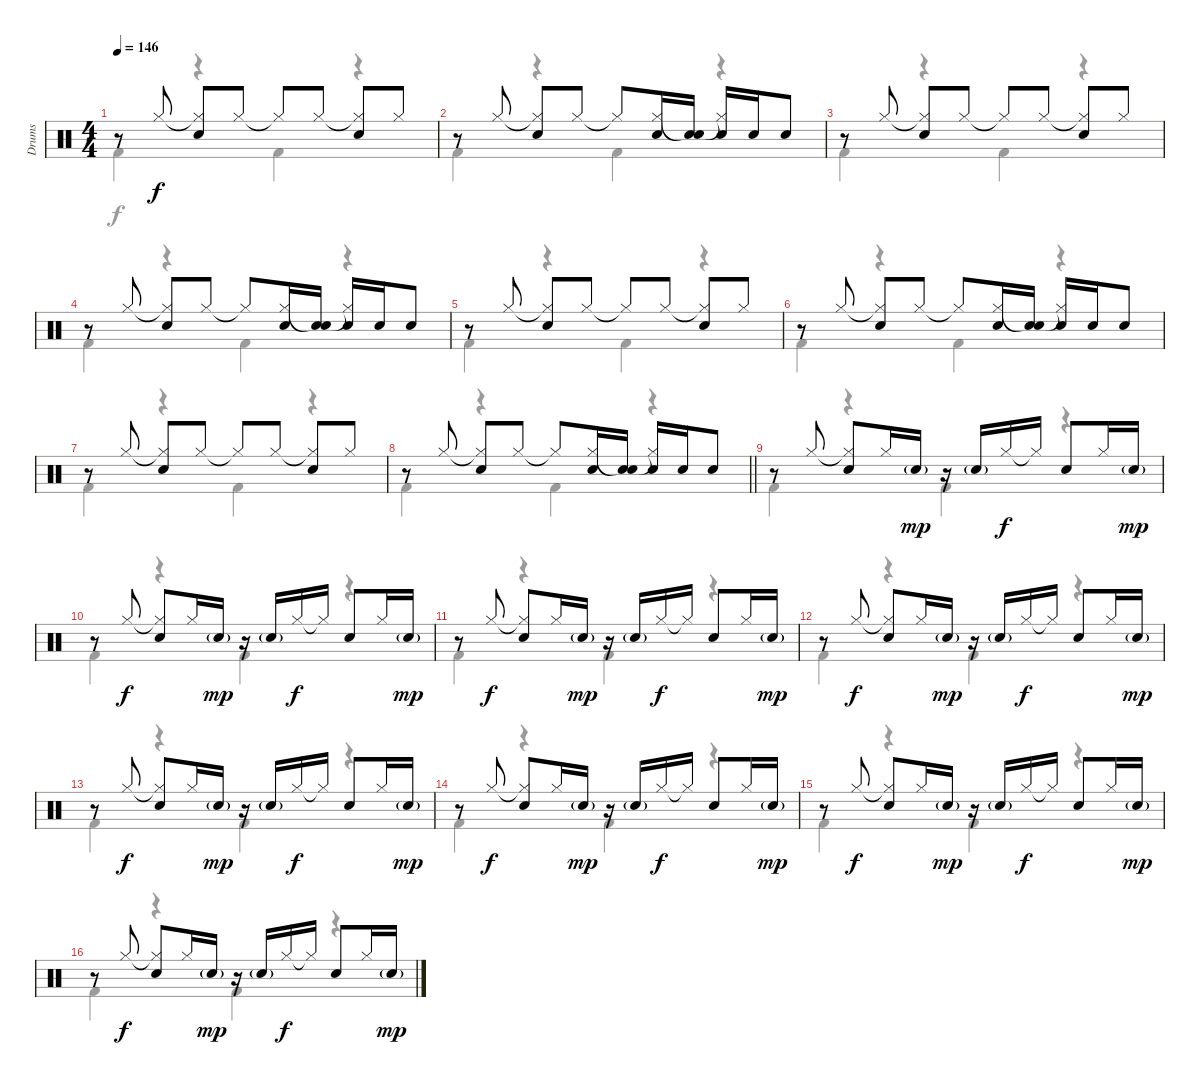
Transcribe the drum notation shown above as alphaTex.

\track ("Drums" "Drums") {instrument percussion}
\staff {score}
\articulation defaults
\voice
\ts (4 4)
\tempo 146
\clef neutral
\ks c
r.8{dy f} "Hi-Hat (closed)".8 ("Hi-Hat (closed)"{t} "Snare (hit) 2").8 "Hi-Hat (closed)".8 "Hi-Hat (closed)"{t}.8 "Hi-Hat (closed)".8 ("Hi-Hat (closed)"{t} "Snare (hit) 2").8 "Hi-Hat (closed)".8 |
r.8 "Hi-Hat (closed)".8 ("Hi-Hat (closed)"{t} "Snare (hit) 2").8 "Hi-Hat (closed)".8 "Hi-Hat (closed)"{t}.8 ("Hi-Hat (closed)" "Snare (hit) 2").16 ("Snare (hit)"{t} "Snare (hit) 2").16 ("Hi-Hat (closed)"{t} "Snare (hit) 2").16 "Snare (hit) 2".16 "Snare (hit) 2".8 |
r.8 "Hi-Hat (closed)".8 ("Hi-Hat (closed)"{t} "Snare (hit) 2").8 "Hi-Hat (closed)".8 "Hi-Hat (closed)"{t}.8 "Hi-Hat (closed)".8 ("Hi-Hat (closed)"{t} "Snare (hit) 2").8 "Hi-Hat (closed)".8 |
r.8 "Hi-Hat (closed)".8 ("Hi-Hat (closed)"{t} "Snare (hit) 2").8 "Hi-Hat (closed)".8 "Hi-Hat (closed)"{t}.8 ("Hi-Hat (closed)" "Snare (hit) 2").16 ("Snare (hit)"{t} "Snare (hit) 2").16 ("Hi-Hat (closed)"{t} "Snare (hit) 2").16 "Snare (hit) 2".16 "Snare (hit) 2".8 |
r.8 "Hi-Hat (closed)".8 ("Hi-Hat (closed)"{t} "Snare (hit) 2").8 "Hi-Hat (closed)".8 "Hi-Hat (closed)"{t}.8 "Hi-Hat (closed)".8 ("Hi-Hat (closed)"{t} "Snare (hit) 2").8 "Hi-Hat (closed)".8 |
r.8 "Hi-Hat (closed)".8 ("Hi-Hat (closed)"{t} "Snare (hit) 2").8 "Hi-Hat (closed)".8 "Hi-Hat (closed)"{t}.8 ("Hi-Hat (closed)" "Snare (hit) 2").16 ("Snare (hit)"{t} "Snare (hit) 2").16 ("Hi-Hat (closed)"{t} "Snare (hit) 2").16 "Snare (hit) 2".16 "Snare (hit) 2".8 |
r.8 "Hi-Hat (closed)".8 ("Hi-Hat (closed)"{t} "Snare (hit) 2").8 "Hi-Hat (closed)".8 "Hi-Hat (closed)"{t}.8 "Hi-Hat (closed)".8 ("Hi-Hat (closed)"{t} "Snare (hit) 2").8 "Hi-Hat (closed)".8 |
\barLineRight lightlight
r.8 "Hi-Hat (closed)".8 ("Hi-Hat (closed)"{t} "Snare (hit) 2").8 "Hi-Hat (closed)".8 "Hi-Hat (closed)"{t}.8 ("Hi-Hat (closed)" "Snare (hit) 2").16 ("Snare (hit)"{t} "Snare (hit) 2").16 ("Hi-Hat (closed)"{t} "Snare (hit) 2").16 "Snare (hit) 2".16 "Snare (hit) 2".8 |
r.8 "Hi-Hat (closed)".8 ("Hi-Hat (closed)"{t} "Snare (hit) 2").8 "Hi-Hat (closed)".16 "Snare (hit) 2"{g}.16{dy mp} r.16 "Snare (hit) 2"{g}.16 "Hi-Hat (closed)".16{dy f} "Hi-Hat (closed)"{t}.16 "Snare (hit) 2".8 "Hi-Hat (closed)".16 "Snare (hit) 2"{g}.16{dy mp} |
r.8 "Hi-Hat (closed)".8{dy f} ("Hi-Hat (closed)"{t} "Snare (hit) 2").8 "Hi-Hat (closed)".16 "Snare (hit) 2"{g}.16{dy mp} r.16 "Snare (hit) 2"{g}.16 "Hi-Hat (closed)".16{dy f} "Hi-Hat (closed)"{t}.16 "Snare (hit) 2".8 "Hi-Hat (closed)".16 "Snare (hit) 2"{g}.16{dy mp} |
r.8 "Hi-Hat (closed)".8{dy f} ("Hi-Hat (closed)"{t} "Snare (hit) 2").8 "Hi-Hat (closed)".16 "Snare (hit) 2"{g}.16{dy mp} r.16 "Snare (hit) 2"{g}.16 "Hi-Hat (closed)".16{dy f} "Hi-Hat (closed)"{t}.16 "Snare (hit) 2".8 "Hi-Hat (closed)".16 "Snare (hit) 2"{g}.16{dy mp} |
r.8 "Hi-Hat (closed)".8{dy f} ("Hi-Hat (closed)"{t} "Snare (hit) 2").8 "Hi-Hat (closed)".16 "Snare (hit) 2"{g}.16{dy mp} r.16 "Snare (hit) 2"{g}.16 "Hi-Hat (closed)".16{dy f} "Hi-Hat (closed)"{t}.16 "Snare (hit) 2".8 "Hi-Hat (closed)".16 "Snare (hit) 2"{g}.16{dy mp} |
r.8 "Hi-Hat (closed)".8{dy f} ("Hi-Hat (closed)"{t} "Snare (hit) 2").8 "Hi-Hat (closed)".16 "Snare (hit) 2"{g}.16{dy mp} r.16 "Snare (hit) 2"{g}.16 "Hi-Hat (closed)".16{dy f} "Hi-Hat (closed)"{t}.16 "Snare (hit) 2".8 "Hi-Hat (closed)".16 "Snare (hit) 2"{g}.16{dy mp} |
r.8 "Hi-Hat (closed)".8{dy f} ("Hi-Hat (closed)"{t} "Snare (hit) 2").8 "Hi-Hat (closed)".16 "Snare (hit) 2"{g}.16{dy mp} r.16 "Snare (hit) 2"{g}.16 "Hi-Hat (closed)".16{dy f} "Hi-Hat (closed)"{t}.16 "Snare (hit) 2".8 "Hi-Hat (closed)".16 "Snare (hit) 2"{g}.16{dy mp} |
r.8 "Hi-Hat (closed)".8{dy f} ("Hi-Hat (closed)"{t} "Snare (hit) 2").8 "Hi-Hat (closed)".16 "Snare (hit) 2"{g}.16{dy mp} r.16 "Snare (hit) 2"{g}.16 "Hi-Hat (closed)".16{dy f} "Hi-Hat (closed)"{t}.16 "Snare (hit) 2".8 "Hi-Hat (closed)".16 "Snare (hit) 2"{g}.16{dy mp} |
r.8 "Hi-Hat (closed)".8{dy f} ("Hi-Hat (closed)"{t} "Snare (hit) 2").8 "Hi-Hat (closed)".16 "Snare (hit) 2"{g}.16{dy mp} r.16 "Snare (hit) 2"{g}.16 "Hi-Hat (closed)".16{dy f} "Hi-Hat (closed)"{t}.16 "Snare (hit) 2".8 "Hi-Hat (closed)".16 "Snare (hit) 2"{g}.16{dy mp}
\voice
\clef neutral
\ottava regular
\simile none
\ks c "Kick (hit) 2".4{dy f}
r.4 "Kick (hit) 2".4 r.4 |
"Kick (hit) 2".4 r.4 "Kick (hit) 2".4 r.4 |
"Kick (hit) 2".4 r.4 "Kick (hit) 2".4 r.4 |
"Kick (hit) 2".4 r.4 "Kick (hit) 2".4 r.4 |
"Kick (hit) 2".4 r.4 "Kick (hit) 2".4 r.4 |
"Kick (hit) 2".4 r.4 "Kick (hit) 2".4 r.4 |
"Kick (hit) 2".4 r.4 "Kick (hit) 2".4 r.4 |
\barLineRight lightlight "Kick (hit) 2".4
r.4 "Kick (hit) 2".4 r.4 |
"Kick (hit) 2".4 r.4 "Kick (hit) 2".4 r.4 |
"Kick (hit) 2".4 r.4 "Kick (hit) 2".4 r.4 |
"Kick (hit) 2".4 r.4 "Kick (hit) 2".4 r.4 |
"Kick (hit) 2".4 r.4 "Kick (hit) 2".4 r.4 |
"Kick (hit) 2".4 r.4 "Kick (hit) 2".4 r.4 |
"Kick (hit) 2".4 r.4 "Kick (hit) 2".4 r.4 |
"Kick (hit) 2".4 r.4 "Kick (hit) 2".4 r.4 |
"Kick (hit) 2".4 r.4 "Kick (hit) 2".4 r.4
